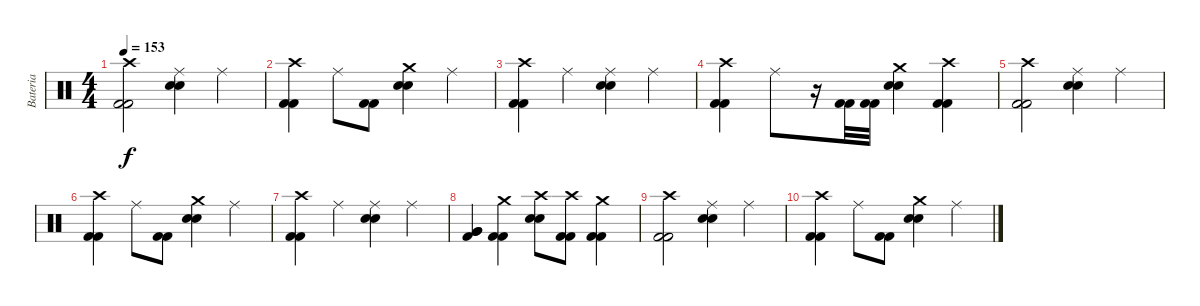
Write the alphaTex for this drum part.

\track ("Bateria" "Bateria") {instrument percussion}
\staff {score}
\articulation defaults
\ts (4 4)
\tempo 153
\clef neutral
\ks c
("Crash high (hit)" "Kick (hit) 2" "Kick (hit) 2").2{dy f} ("Ride (middle)" "Snare (hit) 2" "Snare (hit) 2").4 "Ride (middle)".4 |
("Crash high (hit)" "Kick (hit) 2" "Kick (hit) 2").4 "Ride (middle)".8 ("Kick (hit) 2" "Kick (hit) 2").8 ("Crash medium (hit)" "Snare (hit) 2" "Snare (hit) 2").4 "Ride (middle)".4 |
("Crash high (hit)" "Kick (hit) 2" "Kick (hit) 2").4 "Ride (middle)".4 ("Ride (middle)" "Snare (hit) 2" "Snare (hit) 2").4 "Ride (middle)".4 |
("Crash high (hit)" "Kick (hit) 2" "Kick (hit) 2").4 "Ride (middle)".8 r.16 ("Kick (hit) 2" "Kick (hit) 2").32 ("Kick (hit) 2" "Kick (hit) 2").32 ("Crash medium (hit)" "Snare (hit) 2" "Snare (hit) 2").4 ("Crash high (hit)" "Kick (hit) 2" "Kick (hit) 2").4 |
("Crash high (hit)" "Kick (hit) 2" "Kick (hit) 2").2 ("Ride (middle)" "Snare (hit) 2" "Snare (hit) 2").4 "Ride (middle)".4 |
("Crash high (hit)" "Kick (hit) 2" "Kick (hit) 2").4 "Ride (middle)".8 ("Kick (hit) 2" "Kick (hit) 2").8 ("Crash medium (hit)" "Snare (hit) 2" "Snare (hit) 2").4 "Ride (middle)".4 |
("Crash high (hit)" "Kick (hit) 2" "Kick (hit) 2").4 "Ride (middle)".4 ("Ride (middle)" "Snare (hit) 2" "Snare (hit) 2").4 "Ride (middle)".4 |
("Very Low Tom (hit)" "Very Low Tom (hit)" "Kick (hit) 2").4 ("Crash medium (hit)" "Kick (hit) 2" "Kick (hit) 2").4 ("Crash high (hit)" "Snare (hit) 2" "Snare (hit) 2").8 ("Crash high (hit)" "Kick (hit) 2" "Kick (hit) 2").8 ("Crash medium (hit)" "Kick (hit) 2" "Kick (hit) 2").4 |
("Crash high (hit)" "Kick (hit) 2" "Kick (hit) 2").2 ("Ride (middle)" "Snare (hit) 2" "Snare (hit) 2").4 "Ride (middle)".4 |
("Crash high (hit)" "Kick (hit) 2" "Kick (hit) 2").4 "Ride (middle)".8 ("Kick (hit) 2" "Kick (hit) 2").8 ("Crash medium (hit)" "Snare (hit) 2" "Snare (hit) 2").4 "Ride (middle)".4
